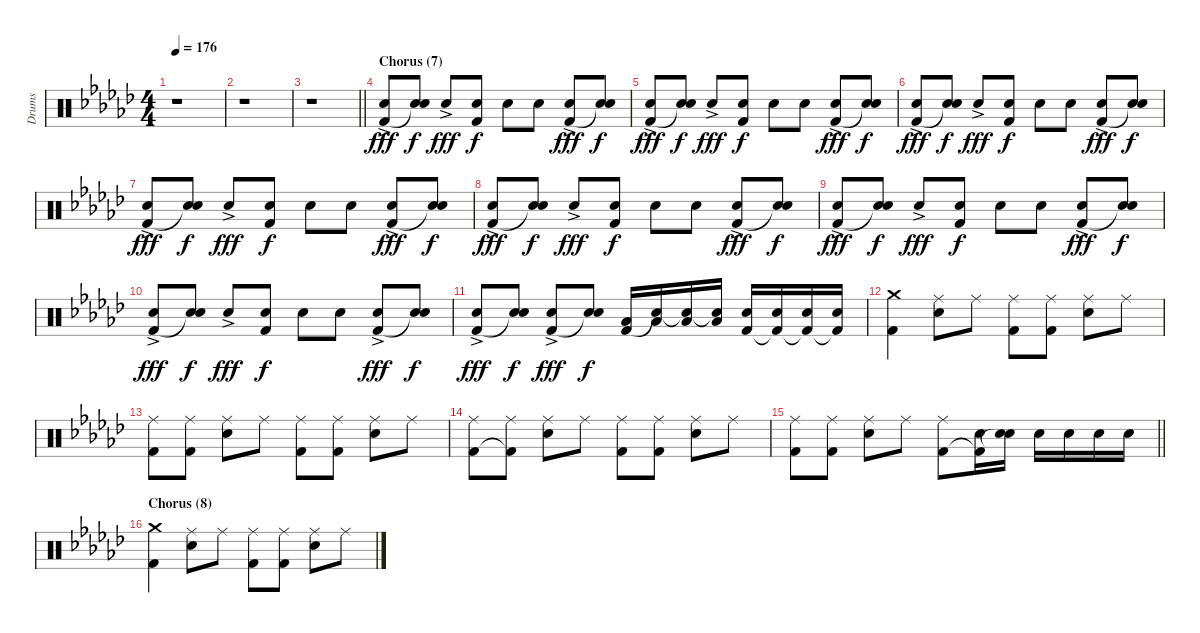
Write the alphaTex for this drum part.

\track ("Drums" "Drums") {instrument percussion}
\staff {score}
\articulation defaults
\ts (4 4)
\tempo 176
\clef neutral
\ks ebminor
r.1{dy f} |
r.1 |
\barLineRight lightlight
r.1 |
\section ("" "Chorus (7)")
("Electric Snare (hit)"{ac} "Kick (hit) 2").8{dy fff} ("Electric Snare (hit)" "Snare (hit)"{t}).8{dy f} "Electric Snare (hit)"{ac}.8{dy fff} ("Electric Snare (hit)" "Kick (hit) 2").8{dy f} "Electric Snare (hit)".8 "Electric Snare (hit)".8 ("Electric Snare (hit)"{ac} "Kick (hit) 2").8{dy fff} ("Electric Snare (hit)" "Snare (hit)"{t}).8{dy f} |
("Electric Snare (hit)"{ac} "Kick (hit) 2").8{dy fff} ("Electric Snare (hit)" "Snare (hit)"{t}).8{dy f} "Electric Snare (hit)"{ac}.8{dy fff} ("Electric Snare (hit)" "Kick (hit) 2").8{dy f} "Electric Snare (hit)".8 "Electric Snare (hit)".8 ("Electric Snare (hit)"{ac} "Kick (hit) 2").8{dy fff} ("Electric Snare (hit)" "Snare (hit)"{t}).8{dy f} |
("Electric Snare (hit)"{ac} "Kick (hit) 2").8{dy fff} ("Electric Snare (hit)" "Snare (hit)"{t}).8{dy f} "Electric Snare (hit)"{ac}.8{dy fff} ("Electric Snare (hit)" "Kick (hit) 2").8{dy f} "Electric Snare (hit)".8 "Electric Snare (hit)".8 ("Electric Snare (hit)"{ac} "Kick (hit) 2").8{dy fff} ("Electric Snare (hit)" "Snare (hit)"{t}).8{dy f} |
("Electric Snare (hit)"{ac} "Kick (hit) 2").8{dy fff} ("Electric Snare (hit)" "Snare (hit)"{t}).8{dy f} "Electric Snare (hit)"{ac}.8{dy fff} ("Electric Snare (hit)" "Kick (hit) 2").8{dy f} "Electric Snare (hit)".8 "Electric Snare (hit)".8 ("Electric Snare (hit)"{ac} "Kick (hit) 2").8{dy fff} ("Electric Snare (hit)" "Snare (hit)"{t}).8{dy f} |
("Electric Snare (hit)"{ac} "Kick (hit) 2").8{dy fff} ("Electric Snare (hit)" "Snare (hit)"{t}).8{dy f} "Electric Snare (hit)"{ac}.8{dy fff} ("Electric Snare (hit)" "Kick (hit) 2").8{dy f} "Electric Snare (hit)".8 "Electric Snare (hit)".8 ("Electric Snare (hit)"{ac} "Kick (hit) 2").8{dy fff} ("Electric Snare (hit)" "Snare (hit)"{t}).8{dy f} |
("Electric Snare (hit)"{ac} "Kick (hit) 2").8{dy fff} ("Electric Snare (hit)" "Snare (hit)"{t}).8{dy f} "Electric Snare (hit)"{ac}.8{dy fff} ("Electric Snare (hit)" "Kick (hit) 2").8{dy f} "Electric Snare (hit)".8 "Electric Snare (hit)".8 ("Electric Snare (hit)"{ac} "Kick (hit) 2").8{dy fff} ("Electric Snare (hit)" "Snare (hit)"{t}).8{dy f} |
("Electric Snare (hit)"{ac} "Kick (hit) 2").8{dy fff} ("Electric Snare (hit)" "Snare (hit)"{t}).8{dy f} "Electric Snare (hit)"{ac}.8{dy fff} ("Electric Snare (hit)" "Kick (hit) 2").8{dy f} "Electric Snare (hit)".8 "Electric Snare (hit)".8 ("Electric Snare (hit)"{ac} "Kick (hit) 2").8{dy fff} ("Electric Snare (hit)" "Snare (hit)"{t}).8{dy f} |
("Electric Snare (hit)"{ac} "Kick (hit) 2").8{dy fff} ("Electric Snare (hit)" "Snare (hit)"{t}).8{dy f} ("Electric Snare (hit)"{ac} "Kick (hit) 2").8{dy fff} ("Electric Snare (hit)" "Snare (hit)"{t}).8{dy f} ("Low Tom (hit)" "Kick (hit) 2").16 ("Low Tom (hit)" "Snare (hit)"{t}).16 ("Low Tom (hit)" "Snare (hit)"{t}).16 ("Low Tom (hit)" "Snare (hit)"{t}).16 ("Electric Snare (hit)" "Kick (hit) 2").16 ("Electric Snare (hit)" "Kick (hit) 2"{t}).16 ("Electric Snare (hit)" "Kick (hit) 2"{t}).16 ("Electric Snare (hit)" "Kick (hit) 2"{t}).16 |
("Crash medium (hit)" "Kick (hit) 2").4 ("Ride (middle)" "Electric Snare (hit)").8 "Ride (middle)".8 ("Ride (middle)" "Kick (hit) 2").8 ("Ride (middle)" "Kick (hit) 2").8 ("Ride (middle)" "Electric Snare (hit)").8 "Ride (middle)".8 |
("Ride (middle)" "Kick (hit) 2").8 ("Ride (middle)" "Kick (hit) 2").8 ("Ride (middle)" "Electric Snare (hit)").8 "Ride (middle)".8 ("Ride (middle)" "Kick (hit) 2").8 ("Ride (middle)" "Kick (hit) 2").8 ("Ride (middle)" "Electric Snare (hit)").8 "Ride (middle)".8 |
("Ride (middle)" "Kick (hit) 2").8 ("Ride (middle)" "Kick (hit) 2"{t}).8 ("Ride (middle)" "Electric Snare (hit)").8 "Ride (middle)".8 ("Ride (middle)" "Kick (hit) 2").8 ("Ride (middle)" "Kick (hit) 2").8 ("Ride (middle)" "Electric Snare (hit)").8 "Ride (middle)".8 |
\barLineRight lightlight
("Ride (middle)" "Kick (hit) 2").8 ("Ride (middle)" "Kick (hit) 2").8 ("Ride (middle)" "Electric Snare (hit)").8 "Ride (middle)".8 ("Ride (middle)" "Kick (hit) 2").8 ("Electric Snare (hit)" "Kick (hit) 2"{t}).16 ("Electric Snare (hit)" "Snare (hit)"{t}).16 "Electric Snare (hit)".16 "Electric Snare (hit)".16 "Electric Snare (hit)".16 "Electric Snare (hit)".16 |
\section ("" "Chorus (8)")
("Crash medium (hit)" "Kick (hit) 2").4 ("Ride (middle)" "Electric Snare (hit)").8 "Ride (middle)".8 ("Ride (middle)" "Kick (hit) 2").8 ("Ride (middle)" "Kick (hit) 2").8 ("Ride (middle)" "Electric Snare (hit)").8 "Ride (middle)".8
